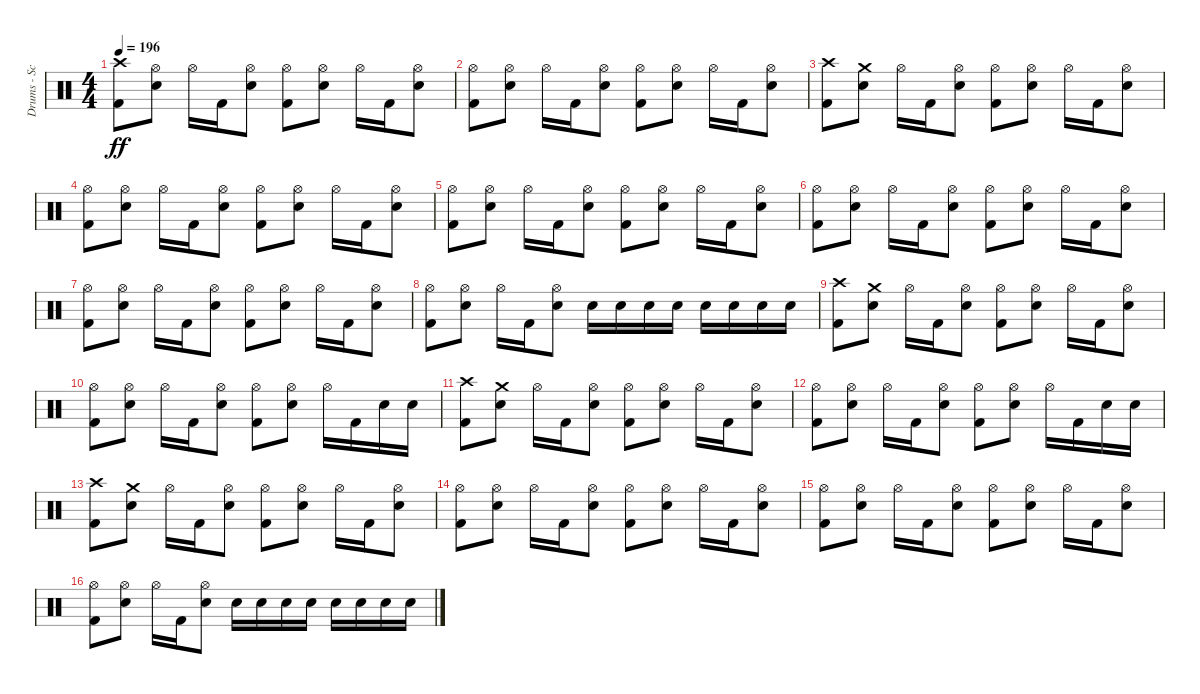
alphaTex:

\track ("Drums - Scott" "Drums - Sc") {instrument percussion}
\staff {score}
\articulation defaults
\ts (4 4)
\tempo 196
\clef neutral
\ks c
("Kick (hit) 2" "Crash high (hit)").8{dy ff} ("Electric Snare (hit)" "Hi-Hat (open)").8 "Hi-Hat (open)".16 "Kick (hit) 2".16 ("Electric Snare (hit)" "Hi-Hat (open)").8 ("Kick (hit) 2" "Hi-Hat (open)").8 ("Electric Snare (hit)" "Hi-Hat (open)").8 "Hi-Hat (open)".16 "Kick (hit) 2".16 ("Electric Snare (hit)" "Hi-Hat (open)").8 |
("Kick (hit) 2" "Hi-Hat (open)").8 ("Electric Snare (hit)" "Hi-Hat (open)").8 "Hi-Hat (open)".16 "Kick (hit) 2".16 ("Electric Snare (hit)" "Hi-Hat (open)").8 ("Kick (hit) 2" "Hi-Hat (open)").8 ("Electric Snare (hit)" "Hi-Hat (open)").8 "Hi-Hat (open)".16 "Kick (hit) 2".16 ("Electric Snare (hit)" "Hi-Hat (open)").8 |
("Kick (hit) 2" "Crash high (hit)").8 ("Electric Snare (hit)" "Crash medium (hit)").8 "Hi-Hat (open)".16 "Kick (hit) 2".16 ("Electric Snare (hit)" "Hi-Hat (open)").8 ("Kick (hit) 2" "Hi-Hat (open)").8 ("Electric Snare (hit)" "Hi-Hat (open)").8 "Hi-Hat (open)".16 "Kick (hit) 2".16 ("Electric Snare (hit)" "Hi-Hat (open)").8 |
("Kick (hit) 2" "Hi-Hat (open)").8 ("Electric Snare (hit)" "Hi-Hat (open)").8 "Hi-Hat (open)".16 "Kick (hit) 2".16 ("Electric Snare (hit)" "Hi-Hat (open)").8 ("Kick (hit) 2" "Hi-Hat (open)").8 ("Electric Snare (hit)" "Hi-Hat (open)").8 "Hi-Hat (open)".16 "Kick (hit) 2".16 ("Electric Snare (hit)" "Hi-Hat (open)").8 |
("Kick (hit) 2" "Hi-Hat (open)").8 ("Electric Snare (hit)" "Hi-Hat (open)").8 "Hi-Hat (open)".16 "Kick (hit) 2".16 ("Electric Snare (hit)" "Hi-Hat (open)").8 ("Kick (hit) 2" "Hi-Hat (open)").8 ("Electric Snare (hit)" "Hi-Hat (open)").8 "Hi-Hat (open)".16 "Kick (hit) 2".16 ("Electric Snare (hit)" "Hi-Hat (open)").8 |
("Kick (hit) 2" "Hi-Hat (open)").8 ("Electric Snare (hit)" "Hi-Hat (open)").8 "Hi-Hat (open)".16 "Kick (hit) 2".16 ("Electric Snare (hit)" "Hi-Hat (open)").8 ("Kick (hit) 2" "Hi-Hat (open)").8 ("Electric Snare (hit)" "Hi-Hat (open)").8 "Hi-Hat (open)".16 "Kick (hit) 2".16 ("Electric Snare (hit)" "Hi-Hat (open)").8 |
("Kick (hit) 2" "Hi-Hat (open)").8 ("Electric Snare (hit)" "Hi-Hat (open)").8 "Hi-Hat (open)".16 "Kick (hit) 2".16 ("Electric Snare (hit)" "Hi-Hat (open)").8 ("Kick (hit) 2" "Hi-Hat (open)").8 ("Electric Snare (hit)" "Hi-Hat (open)").8 "Hi-Hat (open)".16 "Kick (hit) 2".16 ("Electric Snare (hit)" "Hi-Hat (open)").8 |
("Kick (hit) 2" "Hi-Hat (open)").8 ("Electric Snare (hit)" "Hi-Hat (open)").8 "Hi-Hat (open)".16 "Kick (hit) 2".16 ("Electric Snare (hit)" "Hi-Hat (open)").8 "Electric Snare (hit)".16 "Electric Snare (hit)".16 "Electric Snare (hit)".16 "Electric Snare (hit)".16 "Electric Snare (hit)".16 "Electric Snare (hit)".16 "Electric Snare (hit)".16 "Electric Snare (hit)".16 |
("Kick (hit) 2" "Crash high (hit)").8 ("Electric Snare (hit)" "Crash medium (hit)").8 "Hi-Hat (open)".16 "Kick (hit) 2".16 ("Electric Snare (hit)" "Hi-Hat (open)").8 ("Kick (hit) 2" "Hi-Hat (open)").8 ("Electric Snare (hit)" "Hi-Hat (open)").8 "Hi-Hat (open)".16 "Kick (hit) 2".16 ("Electric Snare (hit)" "Hi-Hat (open)").8 |
("Kick (hit) 2" "Hi-Hat (open)").8 ("Electric Snare (hit)" "Hi-Hat (open)").8 "Hi-Hat (open)".16 "Kick (hit) 2".16 ("Electric Snare (hit)" "Hi-Hat (open)").8 ("Kick (hit) 2" "Hi-Hat (open)").8 ("Electric Snare (hit)" "Hi-Hat (open)").8 "Hi-Hat (open)".16 "Kick (hit) 2".16 "Electric Snare (hit)".16 "Electric Snare (hit)".16 |
("Kick (hit) 2" "Crash high (hit)").8 ("Electric Snare (hit)" "Crash medium (hit)").8 "Hi-Hat (open)".16 "Kick (hit) 2".16 ("Electric Snare (hit)" "Hi-Hat (open)").8 ("Kick (hit) 2" "Hi-Hat (open)").8 ("Electric Snare (hit)" "Hi-Hat (open)").8 "Hi-Hat (open)".16 "Kick (hit) 2".16 ("Electric Snare (hit)" "Hi-Hat (open)").8 |
("Kick (hit) 2" "Hi-Hat (open)").8 ("Electric Snare (hit)" "Hi-Hat (open)").8 "Hi-Hat (open)".16 "Kick (hit) 2".16 ("Electric Snare (hit)" "Hi-Hat (open)").8 ("Kick (hit) 2" "Hi-Hat (open)").8 ("Electric Snare (hit)" "Hi-Hat (open)").8 "Hi-Hat (open)".16 "Kick (hit) 2".16 "Electric Snare (hit)".16 "Electric Snare (hit)".16 |
("Kick (hit) 2" "Crash high (hit)").8 ("Electric Snare (hit)" "Crash medium (hit)").8 "Hi-Hat (open)".16 "Kick (hit) 2".16 ("Electric Snare (hit)" "Hi-Hat (open)").8 ("Kick (hit) 2" "Hi-Hat (open)").8 ("Electric Snare (hit)" "Hi-Hat (open)").8 "Hi-Hat (open)".16 "Kick (hit) 2".16 ("Electric Snare (hit)" "Hi-Hat (open)").8 |
("Kick (hit) 2" "Hi-Hat (open)").8 ("Electric Snare (hit)" "Hi-Hat (open)").8 "Hi-Hat (open)".16 "Kick (hit) 2".16 ("Electric Snare (hit)" "Hi-Hat (open)").8 ("Kick (hit) 2" "Hi-Hat (open)").8 ("Electric Snare (hit)" "Hi-Hat (open)").8 "Hi-Hat (open)".16 "Kick (hit) 2".16 ("Electric Snare (hit)" "Hi-Hat (open)").8 |
("Kick (hit) 2" "Hi-Hat (open)").8 ("Electric Snare (hit)" "Hi-Hat (open)").8 "Hi-Hat (open)".16 "Kick (hit) 2".16 ("Electric Snare (hit)" "Hi-Hat (open)").8 ("Kick (hit) 2" "Hi-Hat (open)").8 ("Electric Snare (hit)" "Hi-Hat (open)").8 "Hi-Hat (open)".16 "Kick (hit) 2".16 ("Electric Snare (hit)" "Hi-Hat (open)").8 |
("Kick (hit) 2" "Hi-Hat (open)").8 ("Electric Snare (hit)" "Hi-Hat (open)").8 "Hi-Hat (open)".16 "Kick (hit) 2".16 ("Electric Snare (hit)" "Hi-Hat (open)").8 "Electric Snare (hit)".16 "Electric Snare (hit)".16 "Electric Snare (hit)".16 "Electric Snare (hit)".16 "Electric Snare (hit)".16 "Electric Snare (hit)".16 "Electric Snare (hit)".16 "Electric Snare (hit)".16
